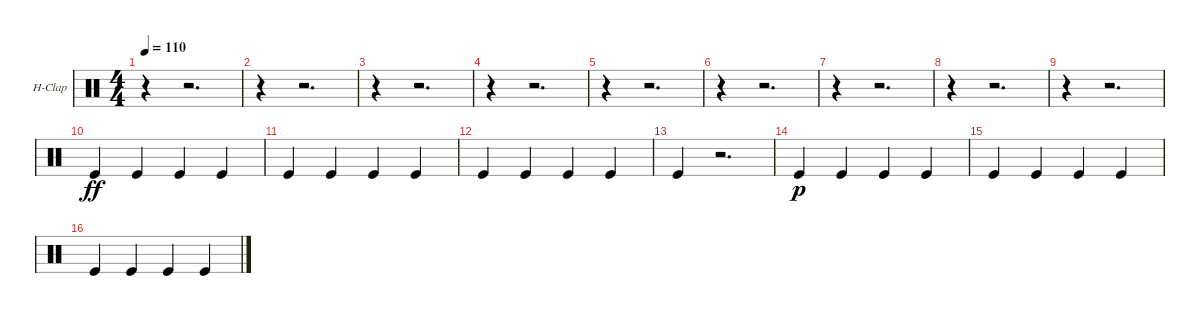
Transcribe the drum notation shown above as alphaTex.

\bracketExtendMode groupsimilarinstruments
\firstSystemTrackNameOrientation horizontal
\otherSystemsTrackNameOrientation horizontal
\track ("Hand Clap" "H-Clap") {instrument percussion}
\staff {score}
\articulation defaults
\ts (4 4)
\tempo 110
\clef neutral
\ks c
r.4{dy ff} r.2{d} |
r.4 r.2{d} |
r.4 r.2{d} |
r.4 r.2{d} |
r.4 r.2{d} |
r.4 r.2{d} |
r.4 r.2{d} |
r.4 r.2{d} |
r.4 r.2{d} |
"Kick (hit)".4 "Kick (hit)".4 "Kick (hit)".4 "Kick (hit)".4 |
"Kick (hit)".4 "Kick (hit)".4 "Kick (hit)".4 "Kick (hit)".4 |
"Kick (hit)".4 "Kick (hit)".4 "Kick (hit)".4 "Kick (hit)".4 |
"Kick (hit)".4 r.2{d} |
"Kick (hit)".4{dy p} "Kick (hit)".4 "Kick (hit)".4 "Kick (hit)".4 |
"Kick (hit)".4 "Kick (hit)".4 "Kick (hit)".4 "Kick (hit)".4 |
"Kick (hit)".4 "Kick (hit)".4 "Kick (hit)".4 "Kick (hit)".4
